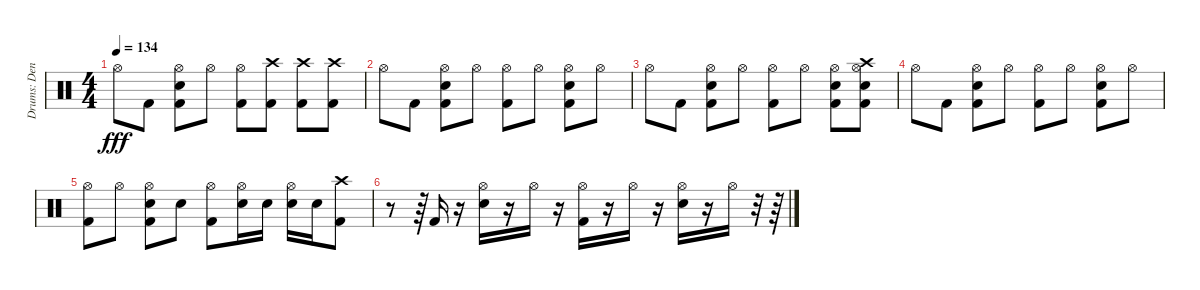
\track ("Drums: Denny" "Drums: Den") {instrument percussion}
\staff {score}
\articulation defaults
\ts (4 4)
\tempo 134
\clef neutral
\ks c "Hi-Hat (open)".8{dy fff} "Kick (hit) 2".8
("Hi-Hat (open)" "Snare (hit) 2" "Kick (hit) 2").8 "Hi-Hat (open)".8 ("Hi-Hat (open)" "Kick (hit) 2").8 ("Crash high (hit)" "Kick (hit) 2").8 ("Crash high (hit)" "Kick (hit) 2").8 ("Crash high (hit)" "Kick (hit) 2").8 |
"Hi-Hat (open)".8 "Kick (hit) 2".8 ("Hi-Hat (open)" "Snare (hit) 2" "Kick (hit) 2").8 "Hi-Hat (open)".8 ("Hi-Hat (open)" "Kick (hit) 2").8 "Hi-Hat (open)".8 ("Hi-Hat (open)" "Snare (hit) 2" "Kick (hit) 2").8 "Hi-Hat (open)".8 |
"Hi-Hat (open)".8 "Kick (hit) 2".8 ("Hi-Hat (open)" "Snare (hit) 2" "Kick (hit) 2").8 "Hi-Hat (open)".8 ("Hi-Hat (open)" "Kick (hit) 2").8 "Hi-Hat (open)".8 ("Hi-Hat (open)" "Snare (hit) 2" "Kick (hit) 2").8 ("Crash high (hit)" "Hi-Hat (open)" "Snare (hit) 2" "Kick (hit) 2").8 |
"Hi-Hat (open)".8 "Kick (hit) 2".8 ("Hi-Hat (open)" "Snare (hit) 2" "Kick (hit) 2").8 "Hi-Hat (open)".8 ("Hi-Hat (open)" "Kick (hit) 2").8 "Hi-Hat (open)".8 ("Hi-Hat (open)" "Snare (hit) 2" "Kick (hit) 2").8 "Hi-Hat (open)".8 |
("Hi-Hat (open)" "Kick (hit) 2").8 "Hi-Hat (open)".8 ("Hi-Hat (open)" "Snare (hit) 2" "Kick (hit) 2").8 "Snare (hit) 2".8 ("Hi-Hat (open)" "Kick (hit) 2").8 ("Hi-Hat (open)" "Snare (hit) 2").16 "Snare (hit) 2".16 ("Hi-Hat (open)" "Snare (hit) 2").16 "Snare (hit) 2".16 ("Crash high (hit)" "Kick (hit) 2").8 |
r.8 r.64 "Kick (hit) 2".16 r.16 ("Hi-Hat (open)" "Electric Snare (hit)").16 r.16 "Hi-Hat (open)".16 r.16 ("Hi-Hat (open)" "Kick (hit) 2").16 r.16 "Hi-Hat (open)".16 r.16 ("Hi-Hat (open)" "Electric Snare (hit)").16 r.16 "Hi-Hat (open)".16 r.32 r.64
